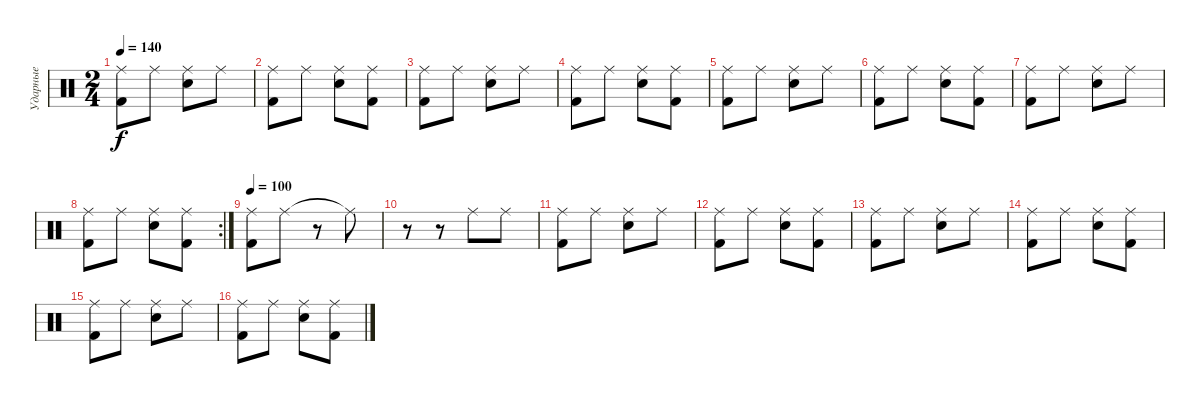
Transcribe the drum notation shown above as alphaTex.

\track ("Ударные" "Ударные") {instrument percussion}
\staff {score}
\articulation defaults
\ts (2 4)
\tempo 140
\clef neutral
\ks c
("Ride (middle)" "Kick (hit) 2").8{dy f} "Ride (middle)".8 ("Ride (middle)" "Snare (hit) 2").8 "Ride (middle)".8 |
("Ride (middle)" "Kick (hit) 2").8 "Ride (middle)".8 ("Ride (middle)" "Snare (hit) 2").8 ("Ride (middle)" "Kick (hit) 2").8 |
("Ride (middle)" "Kick (hit) 2").8 "Ride (middle)".8 ("Ride (middle)" "Snare (hit) 2").8 "Ride (middle)".8 |
("Ride (middle)" "Kick (hit) 2").8 "Ride (middle)".8 ("Ride (middle)" "Snare (hit) 2").8 ("Ride (middle)" "Kick (hit) 2").8 |
("Ride (middle)" "Kick (hit) 2").8 "Ride (middle)".8 ("Ride (middle)" "Snare (hit) 2").8 "Ride (middle)".8 |
("Ride (middle)" "Kick (hit) 2").8 "Ride (middle)".8 ("Ride (middle)" "Snare (hit) 2").8 ("Ride (middle)" "Kick (hit) 2").8 |
("Ride (middle)" "Kick (hit) 2").8 "Ride (middle)".8 ("Ride (middle)" "Snare (hit) 2").8 "Ride (middle)".8 |
\rc 2
("Ride (middle)" "Kick (hit) 2").8 "Ride (middle)".8 ("Ride (middle)" "Snare (hit) 2").8 ("Ride (middle)" "Kick (hit) 2").8 |
\tempo 100
("Ride (middle)" "Kick (hit) 2").8 "Ride (middle)".8 r.8 "Ride (middle)"{t}.8 |
r.8 r.8 "Ride (middle)".8 "Ride (middle)".8 |
("Ride (middle)" "Kick (hit) 2").8 "Ride (middle)".8 ("Ride (middle)" "Snare (hit) 2").8 "Ride (middle)".8 |
("Ride (middle)" "Kick (hit) 2").8 "Ride (middle)".8 ("Ride (middle)" "Snare (hit) 2").8 ("Ride (middle)" "Kick (hit) 2").8 |
("Ride (middle)" "Kick (hit) 2").8 "Ride (middle)".8 ("Ride (middle)" "Snare (hit) 2").8 "Ride (middle)".8 |
("Ride (middle)" "Kick (hit) 2").8 "Ride (middle)".8 ("Ride (middle)" "Snare (hit) 2").8 ("Ride (middle)" "Kick (hit) 2").8 |
("Ride (middle)" "Kick (hit) 2").8 "Ride (middle)".8 ("Ride (middle)" "Snare (hit) 2").8 "Ride (middle)".8 |
("Ride (middle)" "Kick (hit) 2").8 "Ride (middle)".8 ("Ride (middle)" "Snare (hit) 2").8 ("Ride (middle)" "Kick (hit) 2").8
